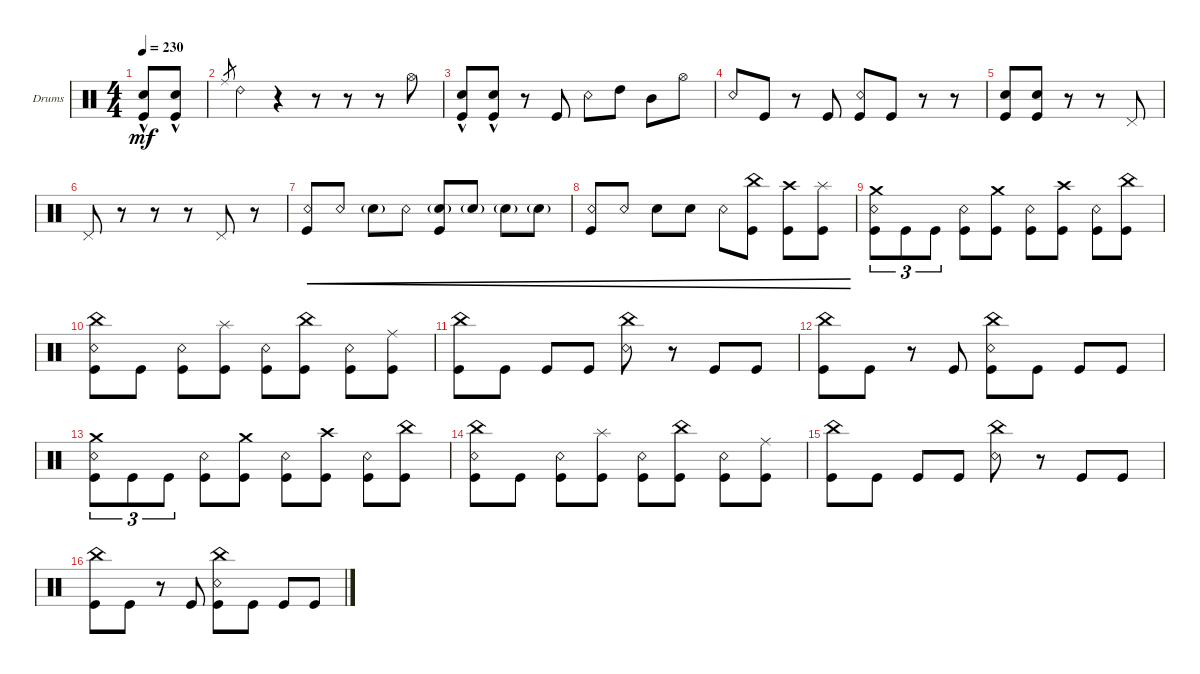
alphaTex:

\bracketExtendMode groupsimilarinstruments
\firstSystemTrackNameOrientation horizontal
\otherSystemsTrackNameOrientation horizontal
\track ("Drumkit" "Drums") {instrument percussion}
\staff {score}
\articulation defaults
\ts (4 4)
\tempo 230
\clef neutral
\ks c
("Snare (hit) 2" "Kick (hit)"{hac}).8{dy mf} ("Snare (hit) 2" "Kick (hit)"{hac}).8 |
"Ride (middle)".8{gr} "Ride (bell) 2".4 r.4 r.8 r.8 r.8 "Hi-Hat (open)".8 |
("Snare (hit) 2" "Kick (hit)"{hac}).8 ("Snare (hit) 2" "Kick (hit)"{hac}).8 r.8 "Kick (hit)".8 "Snare (rim shot)".8 "High Tom (hit)".8 "Mid Tom (hit)".8 "Hi-Hat (open)".8 |
"Snare (rim shot)".8 "Kick (hit)".8 r.8 "Kick (hit)".8 ("Kick (hit)" "Snare (rim shot)").8 "Kick (hit)".8 r.8 r.8 |
("Kick (hit)" "Snare (hit) 2").8 ("Kick (hit)" "Snare (hit) 2").8 r.8 r.8 "Pedal Hi-Hat (hit)".8 |
"Pedal Hi-Hat (hit)".8 r.8 r.8 r.8 "Pedal Hi-Hat (hit)".8 r.8 |
("Snare (rim shot)" "Kick (hit)").8{cre} "Snare (rim shot)".8{cre} "Snare (hit) 2"{g}.8{cre} "Snare (rim shot)".8{cre} ("Snare (hit) 2"{g} "Kick (hit)").8{cre} "Snare (hit) 2"{g}.8{cre} "Snare (hit) 2"{g}.8{cre} "Snare (hit) 2"{g}.8{cre} |
("Kick (hit)" "Snare (rim shot)").8{cre} "Snare (rim shot)".8{cre} "Snare (hit) 2".8{cre} "Snare (hit) 2".8{cre} "Snare (rim shot)".8{cre} ("China (hit)" "Kick (hit)").8{cre} ("Crash high (hit)" "Kick (hit)").8{cre} ("Splash (hit)" "Kick (hit)").8{cre} |
("Kick (hit)" "Snare (rim shot)" "Crash medium (hit)").8{tu (3 2)} "Kick (hit)".8{tu (3 2)} "Kick (hit)".8{tu (3 2)} ("Kick (hit)" "Snare (rim shot)").8 ("Kick (hit)" "Crash medium (hit)").8 ("Kick (hit)" "Snare (rim shot)").8 ("Kick (hit)" "Crash high (hit)").8 ("Kick (hit)" "Snare (rim shot)").8 ("Kick (hit)" "China (hit)").8 |
("Kick (hit)" "China (hit)" "Snare (rim shot)").8 "Kick (hit)".8 ("Kick (hit)" "Snare (rim shot)").8 ("Kick (hit)" "Splash (hit)").8 ("Kick (hit)" "Snare (rim shot)").8 ("Kick (hit)" "China (hit)").8 ("Kick (hit)" "Snare (rim shot)").8 ("Kick (hit)" "Ride (middle)").8 |
("Kick (hit)" "China (hit)").8 "Kick (hit)".8 "Kick (hit)".8 "Kick (hit)".8 ("China (hit)" "Snare (rim shot)").8 r.8 "Kick (hit)".8 "Kick (hit)".8 |
("Kick (hit)" "China (hit)").8 "Kick (hit)".8 r.8 "Kick (hit)".8 ("Kick (hit)" "Snare (rim shot)" "China (hit)").8 "Kick (hit)".8 "Kick (hit)".8 "Kick (hit)".8 |
("Kick (hit)" "Snare (rim shot)" "Crash medium (hit)").8{tu (3 2)} "Kick (hit)".8{tu (3 2)} "Kick (hit)".8{tu (3 2)} ("Kick (hit)" "Snare (rim shot)").8 ("Kick (hit)" "Crash medium (hit)").8 ("Kick (hit)" "Snare (rim shot)").8 ("Kick (hit)" "Crash high (hit)").8 ("Kick (hit)" "Snare (rim shot)").8 ("Kick (hit)" "China (hit)").8 |
("Kick (hit)" "China (hit)" "Snare (rim shot)").8 "Kick (hit)".8 ("Kick (hit)" "Snare (rim shot)").8 ("Kick (hit)" "Splash (hit)").8 ("Kick (hit)" "Snare (rim shot)").8 ("Kick (hit)" "China (hit)").8 ("Kick (hit)" "Snare (rim shot)").8 ("Kick (hit)" "Ride (middle)").8 |
("Kick (hit)" "China (hit)").8 "Kick (hit)".8 "Kick (hit)".8 "Kick (hit)".8 ("China (hit)" "Snare (rim shot)").8 r.8 "Kick (hit)".8 "Kick (hit)".8 |
("Kick (hit)" "China (hit)").8 "Kick (hit)".8 r.8 "Kick (hit)".8 ("Kick (hit)" "Snare (rim shot)" "China (hit)").8 "Kick (hit)".8 "Kick (hit)".8 "Kick (hit)".8
